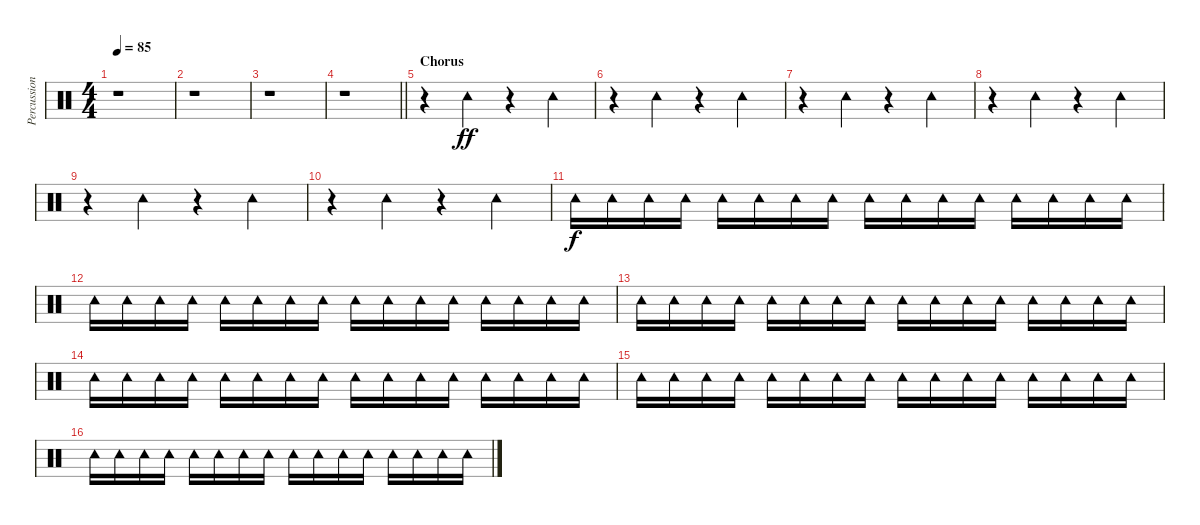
\track ("Percussions" "Percussion") {instrument percussion}
\staff {score}
\articulation defaults
\ts (4 4)
\tempo 85
\clef neutral
\ks c
r.1{dy f} |
r.1 |
r.1 |
\barLineRight lightlight
r.1 |
\section ("" "Chorus")
r.4 "Tambourine (hit)".4{dy ff} r.4 "Tambourine (hit)".4 |
r.4 "Tambourine (hit)".4 r.4 "Tambourine (hit)".4 |
r.4 "Tambourine (hit)".4 r.4 "Tambourine (hit)".4 |
r.4 "Tambourine (hit)".4 r.4 "Tambourine (hit)".4 |
r.4 "Tambourine (hit)".4 r.4 "Tambourine (hit)".4 |
r.4 "Tambourine (hit)".4 r.4 "Tambourine (hit)".4 |
"Tambourine (hit)".16{dy f} "Tambourine (hit)".16 "Tambourine (hit)".16 "Tambourine (hit)".16 "Tambourine (hit)".16 "Tambourine (hit)".16 "Tambourine (hit)".16 "Tambourine (hit)".16 "Tambourine (hit)".16 "Tambourine (hit)".16 "Tambourine (hit)".16 "Tambourine (hit)".16 "Tambourine (hit)".16 "Tambourine (hit)".16 "Tambourine (hit)".16 "Tambourine (hit)".16 |
"Tambourine (hit)".16 "Tambourine (hit)".16 "Tambourine (hit)".16 "Tambourine (hit)".16 "Tambourine (hit)".16 "Tambourine (hit)".16 "Tambourine (hit)".16 "Tambourine (hit)".16 "Tambourine (hit)".16 "Tambourine (hit)".16 "Tambourine (hit)".16 "Tambourine (hit)".16 "Tambourine (hit)".16 "Tambourine (hit)".16 "Tambourine (hit)".16 "Tambourine (hit)".16 |
"Tambourine (hit)".16 "Tambourine (hit)".16 "Tambourine (hit)".16 "Tambourine (hit)".16 "Tambourine (hit)".16 "Tambourine (hit)".16 "Tambourine (hit)".16 "Tambourine (hit)".16 "Tambourine (hit)".16 "Tambourine (hit)".16 "Tambourine (hit)".16 "Tambourine (hit)".16 "Tambourine (hit)".16 "Tambourine (hit)".16 "Tambourine (hit)".16 "Tambourine (hit)".16 |
"Tambourine (hit)".16 "Tambourine (hit)".16 "Tambourine (hit)".16 "Tambourine (hit)".16 "Tambourine (hit)".16 "Tambourine (hit)".16 "Tambourine (hit)".16 "Tambourine (hit)".16 "Tambourine (hit)".16 "Tambourine (hit)".16 "Tambourine (hit)".16 "Tambourine (hit)".16 "Tambourine (hit)".16 "Tambourine (hit)".16 "Tambourine (hit)".16 "Tambourine (hit)".16 |
"Tambourine (hit)".16 "Tambourine (hit)".16 "Tambourine (hit)".16 "Tambourine (hit)".16 "Tambourine (hit)".16 "Tambourine (hit)".16 "Tambourine (hit)".16 "Tambourine (hit)".16 "Tambourine (hit)".16 "Tambourine (hit)".16 "Tambourine (hit)".16 "Tambourine (hit)".16 "Tambourine (hit)".16 "Tambourine (hit)".16 "Tambourine (hit)".16 "Tambourine (hit)".16 |
"Tambourine (hit)".16 "Tambourine (hit)".16 "Tambourine (hit)".16 "Tambourine (hit)".16 "Tambourine (hit)".16 "Tambourine (hit)".16 "Tambourine (hit)".16 "Tambourine (hit)".16 "Tambourine (hit)".16 "Tambourine (hit)".16 "Tambourine (hit)".16 "Tambourine (hit)".16 "Tambourine (hit)".16 "Tambourine (hit)".16 "Tambourine (hit)".16 "Tambourine (hit)".16
